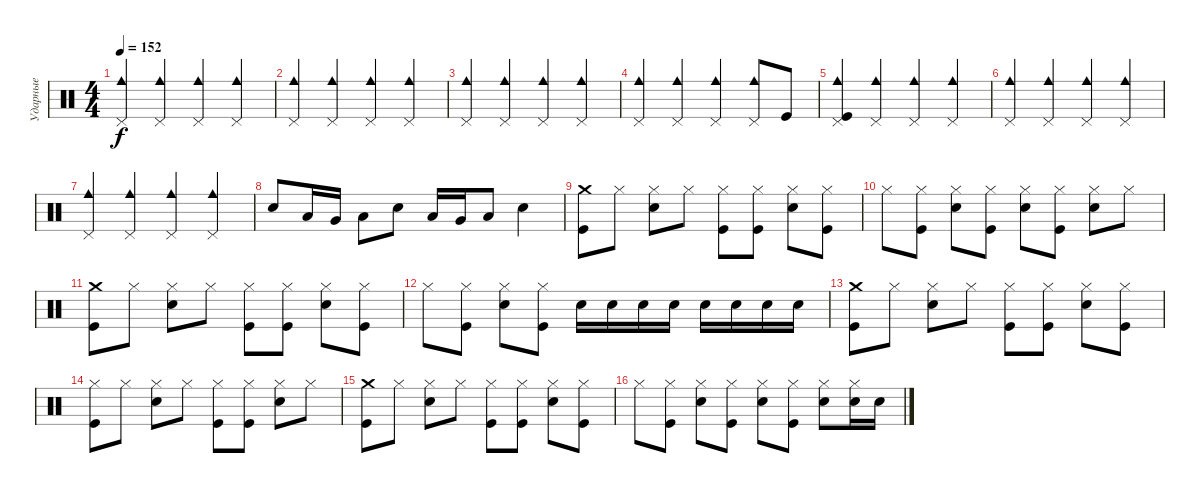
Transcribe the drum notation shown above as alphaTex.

\track ("Ударные" "Ударные") {instrument percussion}
\staff {score}
\articulation defaults
\ts (4 4)
\tempo 152
\clef neutral
\ks c
("Pedal Hi-Hat (hit)" "Cowbell medium (hit)").4{dy f} ("Pedal Hi-Hat (hit)" "Cowbell medium (hit)").4 ("Pedal Hi-Hat (hit)" "Cowbell medium (hit)").4 ("Pedal Hi-Hat (hit)" "Cowbell medium (hit)").4 |
("Pedal Hi-Hat (hit)" "Cowbell medium (hit)").4 ("Pedal Hi-Hat (hit)" "Cowbell medium (hit)").4 ("Pedal Hi-Hat (hit)" "Cowbell medium (hit)").4 ("Pedal Hi-Hat (hit)" "Cowbell medium (hit)").4 |
("Pedal Hi-Hat (hit)" "Cowbell medium (hit)").4 ("Pedal Hi-Hat (hit)" "Cowbell medium (hit)").4 ("Pedal Hi-Hat (hit)" "Cowbell medium (hit)").4 ("Pedal Hi-Hat (hit)" "Cowbell medium (hit)").4 |
("Pedal Hi-Hat (hit)" "Cowbell medium (hit)").4 ("Pedal Hi-Hat (hit)" "Cowbell medium (hit)").4 ("Pedal Hi-Hat (hit)" "Cowbell medium (hit)").4 ("Pedal Hi-Hat (hit)" "Cowbell medium (hit)").8 "Kick (hit)".8 |
("Pedal Hi-Hat (hit)" "Cowbell medium (hit)" "Kick (hit)").4 ("Pedal Hi-Hat (hit)" "Cowbell medium (hit)").4 ("Pedal Hi-Hat (hit)" "Cowbell medium (hit)").4 ("Pedal Hi-Hat (hit)" "Cowbell medium (hit)").4 |
("Pedal Hi-Hat (hit)" "Cowbell medium (hit)").4 ("Pedal Hi-Hat (hit)" "Cowbell medium (hit)").4 ("Pedal Hi-Hat (hit)" "Cowbell medium (hit)").4 ("Pedal Hi-Hat (hit)" "Cowbell medium (hit)").4 |
("Pedal Hi-Hat (hit)" "Cowbell medium (hit)").4 ("Pedal Hi-Hat (hit)" "Cowbell medium (hit)").4 ("Pedal Hi-Hat (hit)" "Cowbell medium (hit)").4 ("Pedal Hi-Hat (hit)" "Cowbell medium (hit)").4 |
"Electric Snare (hit)".8 "Low Tom (hit)".16 "Very Low Tom (hit)".16 "Low Tom (hit)".8 "Electric Snare (hit)".8 "Low Tom (hit)".16 "Very Low Tom (hit)".16 "Low Tom (hit)".8 "Electric Snare (hit)".4 |
("Crash medium (hit)" "Kick (hit)").8 "Hi-Hat (closed)".8 ("Hi-Hat (closed)" "Electric Snare (hit)").8 "Hi-Hat (closed)".8 ("Hi-Hat (closed)" "Kick (hit)").8 ("Hi-Hat (closed)" "Kick (hit)").8 ("Hi-Hat (closed)" "Electric Snare (hit)").8 ("Hi-Hat (closed)" "Kick (hit)").8 |
"Hi-Hat (closed)".8 ("Hi-Hat (closed)" "Kick (hit)").8 ("Hi-Hat (closed)" "Electric Snare (hit)").8 ("Hi-Hat (closed)" "Kick (hit)").8 ("Hi-Hat (closed)" "Electric Snare (hit)").8 ("Hi-Hat (closed)" "Kick (hit)").8 ("Hi-Hat (closed)" "Electric Snare (hit)").8 "Hi-Hat (closed)".8 |
("Crash medium (hit)" "Kick (hit)").8 "Hi-Hat (closed)".8 ("Hi-Hat (closed)" "Electric Snare (hit)").8 "Hi-Hat (closed)".8 ("Hi-Hat (closed)" "Kick (hit)").8 ("Hi-Hat (closed)" "Kick (hit)").8 ("Hi-Hat (closed)" "Electric Snare (hit)").8 ("Hi-Hat (closed)" "Kick (hit)").8 |
"Hi-Hat (closed)".8 ("Hi-Hat (closed)" "Kick (hit)").8 ("Hi-Hat (closed)" "Electric Snare (hit)").8 ("Hi-Hat (closed)" "Kick (hit)").8 "Electric Snare (hit)".16 "Electric Snare (hit)".16 "Electric Snare (hit)".16 "Electric Snare (hit)".16 "Electric Snare (hit)".16 "Electric Snare (hit)".16 "Electric Snare (hit)".16 "Electric Snare (hit)".16 |
("Crash medium (hit)" "Kick (hit)").8 "Hi-Hat (closed)".8 ("Hi-Hat (closed)" "Electric Snare (hit)").8 "Hi-Hat (closed)".8 ("Hi-Hat (closed)" "Kick (hit)").8 ("Hi-Hat (closed)" "Kick (hit)").8 ("Hi-Hat (closed)" "Electric Snare (hit)").8 ("Hi-Hat (closed)" "Kick (hit)").8 |
("Hi-Hat (closed)" "Kick (hit)").8 "Hi-Hat (closed)".8 ("Hi-Hat (closed)" "Electric Snare (hit)").8 "Hi-Hat (closed)".8 ("Hi-Hat (closed)" "Kick (hit)").8 ("Hi-Hat (closed)" "Kick (hit)").8 ("Hi-Hat (closed)" "Electric Snare (hit)").8 "Hi-Hat (closed)".8 |
("Crash medium (hit)" "Kick (hit)").8 "Hi-Hat (closed)".8 ("Hi-Hat (closed)" "Electric Snare (hit)").8 "Hi-Hat (closed)".8 ("Hi-Hat (closed)" "Kick (hit)").8 ("Hi-Hat (closed)" "Kick (hit)").8 ("Hi-Hat (closed)" "Electric Snare (hit)").8 ("Hi-Hat (closed)" "Kick (hit)").8 |
"Hi-Hat (closed)".8 ("Hi-Hat (closed)" "Kick (hit)").8 ("Hi-Hat (closed)" "Electric Snare (hit)").8 ("Hi-Hat (closed)" "Kick (hit)").8 ("Hi-Hat (closed)" "Electric Snare (hit)").8 ("Hi-Hat (closed)" "Kick (hit)").8 ("Hi-Hat (closed)" "Electric Snare (hit)").8 ("Hi-Hat (closed)" "Electric Snare (hit)").16 "Electric Snare (hit)".16
